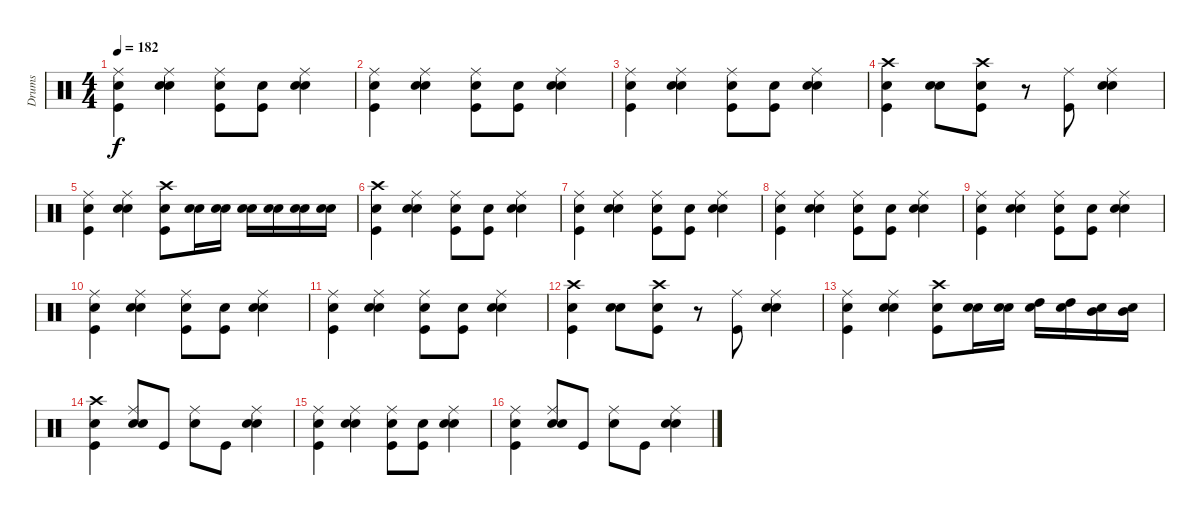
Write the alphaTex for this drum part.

\track ("Drums" "Drums") {instrument percussion}
\staff {score}
\articulation defaults
\ts (4 4)
\tempo 182
\clef neutral
\ks c
("Snare (hit)" "Kick (hit)" "Ride (middle)").4{dy f} ("Snare (hit)" "Electric Snare (hit)" "Ride (middle)").4 ("Snare (hit)" "Kick (hit)" "Ride (middle)").8 ("Snare (hit)" "Kick (hit)").8 ("Snare (hit)" "Electric Snare (hit)" "Ride (middle)").4 |
("Snare (hit)" "Ride (middle)" "Kick (hit)").4 ("Snare (hit)" "Electric Snare (hit)" "Ride (middle)").4 ("Snare (hit)" "Kick (hit)" "Ride (middle)").8 ("Snare (hit)" "Kick (hit)").8 ("Snare (hit)" "Electric Snare (hit)" "Ride (middle)").4 |
("Snare (hit)" "Kick (hit)" "Ride (middle)").4 ("Snare (hit)" "Electric Snare (hit)" "Ride (middle)").4 ("Snare (hit)" "Ride (middle)" "Kick (hit)").8 ("Snare (hit)" "Kick (hit)").8 ("Snare (hit)" "Electric Snare (hit)" "Ride (middle)").4 |
("Snare (hit)" "Kick (hit)" "Crash high (hit)").4 ("Snare (hit)" "Electric Snare (hit)").8 ("Snare (hit)" "Kick (hit)" "Crash high (hit)").8 r.8 ("Kick (hit)" "Ride (middle)").8 ("Snare (hit)" "Electric Snare (hit)" "Ride (middle)").4 |
("Snare (hit)" "Kick (hit)" "Ride (middle)").4 ("Snare (hit)" "Electric Snare (hit)" "Ride (middle)").4 ("Snare (hit)" "Kick (hit)" "Crash high (hit)").8 ("Snare (hit)" "Electric Snare (hit)").16 ("Snare (hit)" "Electric Snare (hit)").16 ("Snare (hit)" "Electric Snare (hit)").16 ("Snare (hit)" "Electric Snare (hit)").16 ("Snare (hit)" "Electric Snare (hit)").16 ("Snare (hit)" "Electric Snare (hit)").16 |
("Snare (hit)" "Kick (hit)" "Crash high (hit)").4 ("Snare (hit)" "Electric Snare (hit)" "Ride (middle)").4 ("Snare (hit)" "Ride (middle)" "Kick (hit)").8 ("Snare (hit)" "Kick (hit)").8 ("Snare (hit)" "Electric Snare (hit)" "Ride (middle)").4 |
("Snare (hit)" "Kick (hit)" "Ride (middle)").4 ("Snare (hit)" "Electric Snare (hit)" "Ride (middle)").4 ("Snare (hit)" "Kick (hit)" "Ride (middle)").8 ("Snare (hit)" "Kick (hit)").8 ("Snare (hit)" "Electric Snare (hit)" "Ride (middle)").4 |
("Snare (hit)" "Kick (hit)" "Ride (middle)").4 ("Snare (hit)" "Electric Snare (hit)" "Ride (middle)").4 ("Snare (hit)" "Kick (hit)" "Ride (middle)").8 ("Snare (hit)" "Kick (hit)").8 ("Snare (hit)" "Electric Snare (hit)" "Ride (middle)").4 |
("Snare (hit)" "Kick (hit)" "Ride (middle)").4 ("Snare (hit)" "Electric Snare (hit)" "Ride (middle)").4 ("Snare (hit)" "Kick (hit)" "Ride (middle)").8 ("Snare (hit)" "Kick (hit)").8 ("Snare (hit)" "Electric Snare (hit)" "Ride (middle)").4 |
("Snare (hit)" "Ride (middle)" "Kick (hit)").4 ("Snare (hit)" "Electric Snare (hit)" "Ride (middle)").4 ("Snare (hit)" "Kick (hit)" "Ride (middle)").8 ("Snare (hit)" "Kick (hit)").8 ("Snare (hit)" "Electric Snare (hit)" "Ride (middle)").4 |
("Snare (hit)" "Kick (hit)" "Ride (middle)").4 ("Snare (hit)" "Electric Snare (hit)" "Ride (middle)").4 ("Snare (hit)" "Ride (middle)" "Kick (hit)").8 ("Snare (hit)" "Kick (hit)").8 ("Snare (hit)" "Electric Snare (hit)" "Ride (middle)").4 |
("Snare (hit)" "Kick (hit)" "Crash high (hit)").4 ("Snare (hit)" "Electric Snare (hit)").8 ("Snare (hit)" "Kick (hit)" "Crash high (hit)").8 r.8 ("Kick (hit)" "Ride (middle)").8 ("Snare (hit)" "Electric Snare (hit)" "Ride (middle)").4 |
("Snare (hit)" "Kick (hit)" "Ride (middle)").4 ("Snare (hit)" "Electric Snare (hit)" "Ride (middle)").4 ("Snare (hit)" "Kick (hit)" "Crash high (hit)").8 ("Snare (hit)" "Electric Snare (hit)").16 ("Snare (hit)" "Electric Snare (hit)").16 ("Snare (hit)" "High Tom (hit)").16 ("Snare (hit)" "High Tom (hit)").16 ("Snare (hit)" "Mid Tom (hit)").16 ("Snare (hit)" "Mid Tom (hit)").16 |
("Snare (hit)" "Kick (hit)" "Crash high (hit)").4 ("Snare (hit)" "Electric Snare (hit)" "Ride (middle)").8 "Kick (hit)".8 ("Snare (hit)" "Ride (middle)").8 "Kick (hit)".8 ("Snare (hit)" "Electric Snare (hit)" "Ride (middle)").4 |
("Snare (hit)" "Kick (hit)" "Ride (middle)").4 ("Snare (hit)" "Electric Snare (hit)" "Ride (middle)").4 ("Snare (hit)" "Kick (hit)" "Ride (middle)").8 ("Snare (hit)" "Kick (hit)").8 ("Snare (hit)" "Electric Snare (hit)" "Ride (middle)").4 |
("Snare (hit)" "Kick (hit)" "Ride (middle)").4 ("Snare (hit)" "Electric Snare (hit)" "Ride (middle)").8 "Kick (hit)".8 ("Snare (hit)" "Ride (middle)").8 "Kick (hit)".8 ("Snare (hit)" "Electric Snare (hit)" "Ride (middle)").4
